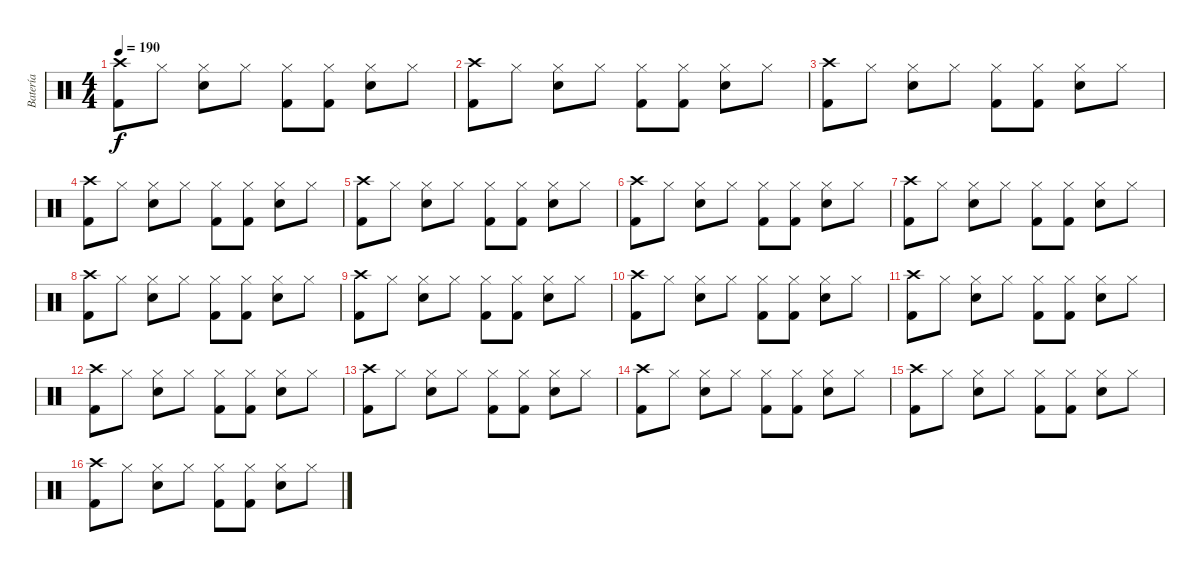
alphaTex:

\track ("Batería" "Batería") {instrument percussion}
\staff {score}
\articulation defaults
\ts (4 4)
\tempo 190
\clef neutral
\ks c
("Crash high (hit)" "Kick (hit) 2").8{dy f} "Hi-Hat (closed)".8 ("Hi-Hat (closed)" "Snare (hit) 2").8 "Hi-Hat (closed)".8 ("Hi-Hat (closed)" "Kick (hit) 2").8 ("Hi-Hat (closed)" "Kick (hit) 2").8 ("Hi-Hat (closed)" "Snare (hit) 2").8 "Hi-Hat (closed)".8 |
("Crash high (hit)" "Kick (hit) 2").8 "Hi-Hat (closed)".8 ("Hi-Hat (closed)" "Snare (hit) 2").8 "Hi-Hat (closed)".8 ("Hi-Hat (closed)" "Kick (hit) 2").8 ("Hi-Hat (closed)" "Kick (hit) 2").8 ("Hi-Hat (closed)" "Snare (hit) 2").8 "Hi-Hat (closed)".8 |
("Crash high (hit)" "Kick (hit) 2").8 "Hi-Hat (closed)".8 ("Hi-Hat (closed)" "Snare (hit) 2").8 "Hi-Hat (closed)".8 ("Hi-Hat (closed)" "Kick (hit) 2").8 ("Hi-Hat (closed)" "Kick (hit) 2").8 ("Hi-Hat (closed)" "Snare (hit) 2").8 "Hi-Hat (closed)".8 |
("Crash high (hit)" "Kick (hit) 2").8 "Hi-Hat (closed)".8 ("Hi-Hat (closed)" "Snare (hit) 2").8 "Hi-Hat (closed)".8 ("Hi-Hat (closed)" "Kick (hit) 2").8 ("Hi-Hat (closed)" "Kick (hit) 2").8 ("Hi-Hat (closed)" "Snare (hit) 2").8 "Hi-Hat (closed)".8 |
("Crash high (hit)" "Kick (hit) 2").8 "Hi-Hat (closed)".8 ("Hi-Hat (closed)" "Snare (hit) 2").8 "Hi-Hat (closed)".8 ("Hi-Hat (closed)" "Kick (hit) 2").8 ("Hi-Hat (closed)" "Kick (hit) 2").8 ("Hi-Hat (closed)" "Snare (hit) 2").8 "Hi-Hat (closed)".8 |
("Crash high (hit)" "Kick (hit) 2").8 "Hi-Hat (closed)".8 ("Hi-Hat (closed)" "Snare (hit) 2").8 "Hi-Hat (closed)".8 ("Hi-Hat (closed)" "Kick (hit) 2").8 ("Hi-Hat (closed)" "Kick (hit) 2").8 ("Hi-Hat (closed)" "Snare (hit) 2").8 "Hi-Hat (closed)".8 |
("Crash high (hit)" "Kick (hit) 2").8 "Hi-Hat (closed)".8 ("Hi-Hat (closed)" "Snare (hit) 2").8 "Hi-Hat (closed)".8 ("Hi-Hat (closed)" "Kick (hit) 2").8 ("Hi-Hat (closed)" "Kick (hit) 2").8 ("Hi-Hat (closed)" "Snare (hit) 2").8 "Hi-Hat (closed)".8 |
("Crash high (hit)" "Kick (hit) 2").8 "Hi-Hat (closed)".8 ("Hi-Hat (closed)" "Snare (hit) 2").8 "Hi-Hat (closed)".8 ("Hi-Hat (closed)" "Kick (hit) 2").8 ("Hi-Hat (closed)" "Kick (hit) 2").8 ("Hi-Hat (closed)" "Snare (hit) 2").8 "Hi-Hat (closed)".8 |
("Crash high (hit)" "Kick (hit) 2").8 "Hi-Hat (closed)".8 ("Hi-Hat (closed)" "Snare (hit) 2").8 "Hi-Hat (closed)".8 ("Hi-Hat (closed)" "Kick (hit) 2").8 ("Hi-Hat (closed)" "Kick (hit) 2").8 ("Hi-Hat (closed)" "Snare (hit) 2").8 "Hi-Hat (closed)".8 |
("Crash high (hit)" "Kick (hit) 2").8 "Hi-Hat (closed)".8 ("Hi-Hat (closed)" "Snare (hit) 2").8 "Hi-Hat (closed)".8 ("Hi-Hat (closed)" "Kick (hit) 2").8 ("Hi-Hat (closed)" "Kick (hit) 2").8 ("Hi-Hat (closed)" "Snare (hit) 2").8 "Hi-Hat (closed)".8 |
("Crash high (hit)" "Kick (hit) 2").8 "Hi-Hat (closed)".8 ("Hi-Hat (closed)" "Snare (hit) 2").8 "Hi-Hat (closed)".8 ("Hi-Hat (closed)" "Kick (hit) 2").8 ("Hi-Hat (closed)" "Kick (hit) 2").8 ("Hi-Hat (closed)" "Snare (hit) 2").8 "Hi-Hat (closed)".8 |
("Crash high (hit)" "Kick (hit) 2").8 "Hi-Hat (closed)".8 ("Hi-Hat (closed)" "Snare (hit) 2").8 "Hi-Hat (closed)".8 ("Hi-Hat (closed)" "Kick (hit) 2").8 ("Hi-Hat (closed)" "Kick (hit) 2").8 ("Hi-Hat (closed)" "Snare (hit) 2").8 "Hi-Hat (closed)".8 |
("Crash high (hit)" "Kick (hit) 2").8 "Hi-Hat (closed)".8 ("Hi-Hat (closed)" "Snare (hit) 2").8 "Hi-Hat (closed)".8 ("Hi-Hat (closed)" "Kick (hit) 2").8 ("Hi-Hat (closed)" "Kick (hit) 2").8 ("Hi-Hat (closed)" "Snare (hit) 2").8 "Hi-Hat (closed)".8 |
("Crash high (hit)" "Kick (hit) 2").8 "Hi-Hat (closed)".8 ("Hi-Hat (closed)" "Snare (hit) 2").8 "Hi-Hat (closed)".8 ("Hi-Hat (closed)" "Kick (hit) 2").8 ("Hi-Hat (closed)" "Kick (hit) 2").8 ("Hi-Hat (closed)" "Snare (hit) 2").8 "Hi-Hat (closed)".8 |
("Crash high (hit)" "Kick (hit) 2").8 "Hi-Hat (closed)".8 ("Hi-Hat (closed)" "Snare (hit) 2").8 "Hi-Hat (closed)".8 ("Hi-Hat (closed)" "Kick (hit) 2").8 ("Hi-Hat (closed)" "Kick (hit) 2").8 ("Hi-Hat (closed)" "Snare (hit) 2").8 "Hi-Hat (closed)".8 |
("Crash high (hit)" "Kick (hit) 2").8 "Hi-Hat (closed)".8 ("Hi-Hat (closed)" "Snare (hit) 2").8 "Hi-Hat (closed)".8 ("Hi-Hat (closed)" "Kick (hit) 2").8 ("Hi-Hat (closed)" "Kick (hit) 2").8 ("Hi-Hat (closed)" "Snare (hit) 2").8 "Hi-Hat (closed)".8
